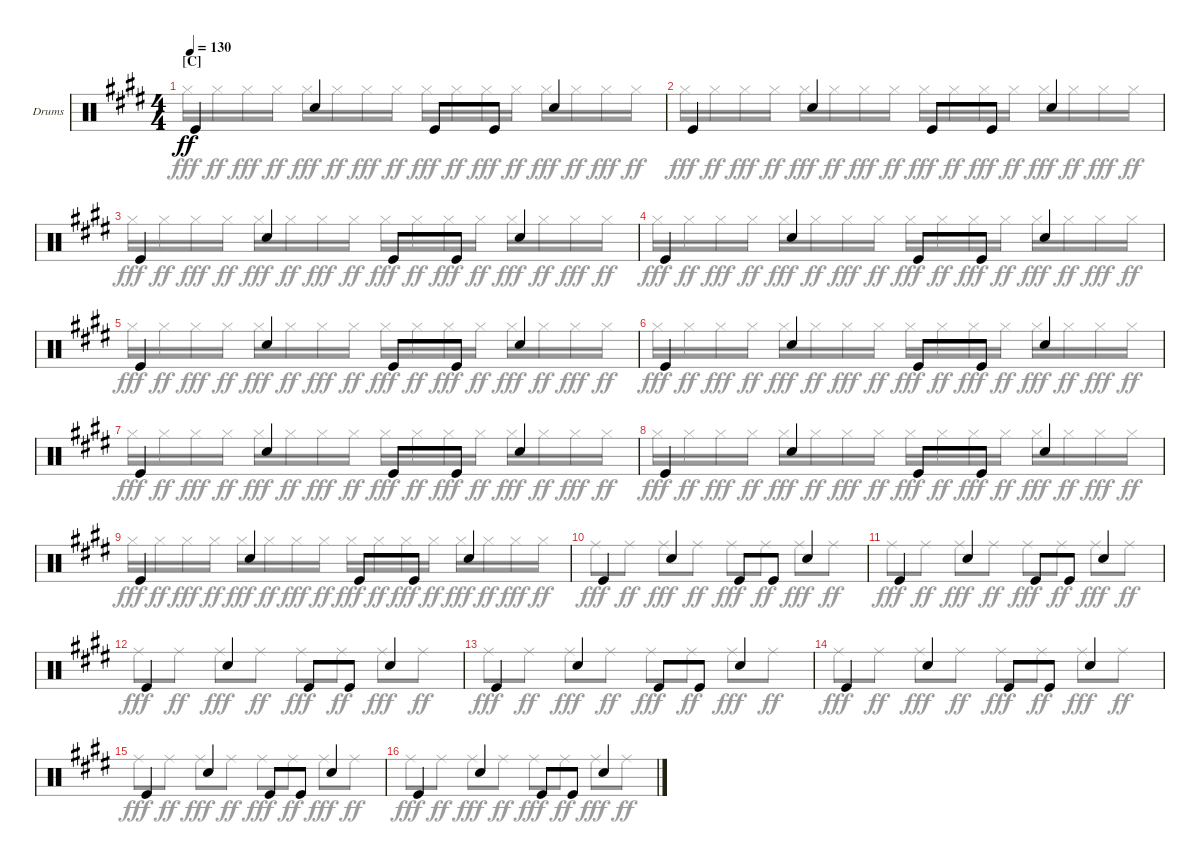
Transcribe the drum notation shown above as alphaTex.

\bracketExtendMode groupsimilarinstruments
\firstSystemTrackNameOrientation horizontal
\otherSystemsTrackNameOrientation horizontal
\track ("Fabrizo Moretti" "Drums") {instrument percussion}
\staff {score}
\articulation defaults
\voice
\ts (4 4)
\section ("C" "")
\tempo 130
\clef neutral
\ks e "Kick (hit)".4{dy ff} "Snare (hit) 2".4 "Kick (hit)".8 "Kick (hit)".8 "Snare (hit) 2".4
|
"Kick (hit)".4 "Snare (hit) 2".4 "Kick (hit)".8 "Kick (hit)".8 "Snare (hit) 2".4 |
"Kick (hit)".4 "Snare (hit) 2".4 "Kick (hit)".8 "Kick (hit)".8 "Snare (hit) 2".4 |
"Kick (hit)".4 "Snare (hit) 2".4 "Kick (hit)".8 "Kick (hit)".8 "Snare (hit) 2".4 |
"Kick (hit)".4 "Snare (hit) 2".4 "Kick (hit)".8 "Kick (hit)".8 "Snare (hit) 2".4 |
"Kick (hit)".4 "Snare (hit) 2".4 "Kick (hit)".8 "Kick (hit)".8 "Snare (hit) 2".4 |
"Kick (hit)".4 "Snare (hit) 2".4 "Kick (hit)".8 "Kick (hit)".8 "Snare (hit) 2".4 |
"Kick (hit)".4 "Snare (hit) 2".4 "Kick (hit)".8 "Kick (hit)".8 "Snare (hit) 2".4 |
"Kick (hit)".4 "Snare (hit) 2".4 "Kick (hit)".8 "Kick (hit)".8 "Snare (hit) 2".4 |
"Kick (hit)".4 "Snare (hit) 2".4 "Kick (hit)".8 "Kick (hit)".8 "Snare (hit) 2".4 |
"Kick (hit)".4 "Snare (hit) 2".4 "Kick (hit)".8 "Kick (hit)".8 "Snare (hit) 2".4 |
"Kick (hit)".4 "Snare (hit) 2".4 "Kick (hit)".8 "Kick (hit)".8 "Snare (hit) 2".4 |
"Kick (hit)".4 "Snare (hit) 2".4 "Kick (hit)".8 "Kick (hit)".8 "Snare (hit) 2".4 |
"Kick (hit)".4 "Snare (hit) 2".4 "Kick (hit)".8 "Kick (hit)".8 "Snare (hit) 2".4 |
"Kick (hit)".4 "Snare (hit) 2".4 "Kick (hit)".8 "Kick (hit)".8 "Snare (hit) 2".4 |
"Kick (hit)".4 "Snare (hit) 2".4 "Kick (hit)".8 "Kick (hit)".8 "Snare (hit) 2".4
\voice
\clef neutral
\ottava regular
\simile none
\ks e "Hi-Hat (closed)".16{dy fff} "Hi-Hat (closed)".16{dy ff} "Hi-Hat (closed)".16{dy fff} "Hi-Hat (closed)".16{dy ff} "Hi-Hat (closed)".16{dy fff} "Hi-Hat (closed)".16{dy ff} "Hi-Hat (closed)".16{dy fff} "Hi-Hat (closed)".16{dy ff} "Hi-Hat (closed)".16{dy fff} "Hi-Hat (closed)".16{dy ff} "Hi-Hat (closed)".16{dy fff} "Hi-Hat (closed)".16{dy ff} "Hi-Hat (closed)".16{dy fff} "Hi-Hat (closed)".16{dy ff} "Hi-Hat (closed)".16{dy fff} "Hi-Hat (closed)".16{dy ff}
|
"Hi-Hat (closed)".16{dy fff} "Hi-Hat (closed)".16{dy ff} "Hi-Hat (closed)".16{dy fff} "Hi-Hat (closed)".16{dy ff} "Hi-Hat (closed)".16{dy fff} "Hi-Hat (closed)".16{dy ff} "Hi-Hat (closed)".16{dy fff} "Hi-Hat (closed)".16{dy ff} "Hi-Hat (closed)".16{dy fff} "Hi-Hat (closed)".16{dy ff} "Hi-Hat (closed)".16{dy fff} "Hi-Hat (closed)".16{dy ff} "Hi-Hat (closed)".16{dy fff} "Hi-Hat (closed)".16{dy ff} "Hi-Hat (closed)".16{dy fff} "Hi-Hat (closed)".16{dy ff} |
"Hi-Hat (closed)".16{dy fff} "Hi-Hat (closed)".16{dy ff} "Hi-Hat (closed)".16{dy fff} "Hi-Hat (closed)".16{dy ff} "Hi-Hat (closed)".16{dy fff} "Hi-Hat (closed)".16{dy ff} "Hi-Hat (closed)".16{dy fff} "Hi-Hat (closed)".16{dy ff} "Hi-Hat (closed)".16{dy fff} "Hi-Hat (closed)".16{dy ff} "Hi-Hat (closed)".16{dy fff} "Hi-Hat (closed)".16{dy ff} "Hi-Hat (closed)".16{dy fff} "Hi-Hat (closed)".16{dy ff} "Hi-Hat (closed)".16{dy fff} "Hi-Hat (closed)".16{dy ff} |
"Hi-Hat (closed)".16{dy fff} "Hi-Hat (closed)".16{dy ff} "Hi-Hat (closed)".16{dy fff} "Hi-Hat (closed)".16{dy ff} "Hi-Hat (closed)".16{dy fff} "Hi-Hat (closed)".16{dy ff} "Hi-Hat (closed)".16{dy fff} "Hi-Hat (closed)".16{dy ff} "Hi-Hat (closed)".16{dy fff} "Hi-Hat (closed)".16{dy ff} "Hi-Hat (closed)".16{dy fff} "Hi-Hat (closed)".16{dy ff} "Hi-Hat (closed)".16{dy fff} "Hi-Hat (closed)".16{dy ff} "Hi-Hat (closed)".16{dy fff} "Hi-Hat (closed)".16{dy ff} |
"Hi-Hat (closed)".16{dy fff} "Hi-Hat (closed)".16{dy ff} "Hi-Hat (closed)".16{dy fff} "Hi-Hat (closed)".16{dy ff} "Hi-Hat (closed)".16{dy fff} "Hi-Hat (closed)".16{dy ff} "Hi-Hat (closed)".16{dy fff} "Hi-Hat (closed)".16{dy ff} "Hi-Hat (closed)".16{dy fff} "Hi-Hat (closed)".16{dy ff} "Hi-Hat (closed)".16{dy fff} "Hi-Hat (closed)".16{dy ff} "Hi-Hat (closed)".16{dy fff} "Hi-Hat (closed)".16{dy ff} "Hi-Hat (closed)".16{dy fff} "Hi-Hat (closed)".16{dy ff} |
"Hi-Hat (closed)".16{dy fff} "Hi-Hat (closed)".16{dy ff} "Hi-Hat (closed)".16{dy fff} "Hi-Hat (closed)".16{dy ff} "Hi-Hat (closed)".16{dy fff} "Hi-Hat (closed)".16{dy ff} "Hi-Hat (closed)".16{dy fff} "Hi-Hat (closed)".16{dy ff} "Hi-Hat (closed)".16{dy fff} "Hi-Hat (closed)".16{dy ff} "Hi-Hat (closed)".16{dy fff} "Hi-Hat (closed)".16{dy ff} "Hi-Hat (closed)".16{dy fff} "Hi-Hat (closed)".16{dy ff} "Hi-Hat (closed)".16{dy fff} "Hi-Hat (closed)".16{dy ff} |
"Hi-Hat (closed)".16{dy fff} "Hi-Hat (closed)".16{dy ff} "Hi-Hat (closed)".16{dy fff} "Hi-Hat (closed)".16{dy ff} "Hi-Hat (closed)".16{dy fff} "Hi-Hat (closed)".16{dy ff} "Hi-Hat (closed)".16{dy fff} "Hi-Hat (closed)".16{dy ff} "Hi-Hat (closed)".16{dy fff} "Hi-Hat (closed)".16{dy ff} "Hi-Hat (closed)".16{dy fff} "Hi-Hat (closed)".16{dy ff} "Hi-Hat (closed)".16{dy fff} "Hi-Hat (closed)".16{dy ff} "Hi-Hat (closed)".16{dy fff} "Hi-Hat (closed)".16{dy ff} |
"Hi-Hat (closed)".16{dy fff} "Hi-Hat (closed)".16{dy ff} "Hi-Hat (closed)".16{dy fff} "Hi-Hat (closed)".16{dy ff} "Hi-Hat (closed)".16{dy fff} "Hi-Hat (closed)".16{dy ff} "Hi-Hat (closed)".16{dy fff} "Hi-Hat (closed)".16{dy ff} "Hi-Hat (closed)".16{dy fff} "Hi-Hat (closed)".16{dy ff} "Hi-Hat (closed)".16{dy fff} "Hi-Hat (closed)".16{dy ff} "Hi-Hat (closed)".16{dy fff} "Hi-Hat (closed)".16{dy ff} "Hi-Hat (closed)".16{dy fff} "Hi-Hat (closed)".16{dy ff} |
"Hi-Hat (closed)".16{dy fff} "Hi-Hat (closed)".16{dy ff} "Hi-Hat (closed)".16{dy fff} "Hi-Hat (closed)".16{dy ff} "Hi-Hat (closed)".16{dy fff} "Hi-Hat (closed)".16{dy ff} "Hi-Hat (closed)".16{dy fff} "Hi-Hat (closed)".16{dy ff} "Hi-Hat (closed)".16{dy fff} "Hi-Hat (closed)".16{dy ff} "Hi-Hat (closed)".16{dy fff} "Hi-Hat (closed)".16{dy ff} "Hi-Hat (closed)".16{dy fff} "Hi-Hat (closed)".16{dy ff} "Hi-Hat (closed)".16{dy fff} "Hi-Hat (closed)".16{dy ff} |
"Ride (middle)".8{dy fff} "Ride (middle)".8{dy ff} "Ride (middle)".8{dy fff} "Ride (middle)".8{dy ff} "Ride (middle)".8{dy fff} "Ride (middle)".8{dy ff} "Ride (middle)".8{dy fff} "Ride (middle)".8{dy ff} |
"Ride (middle)".8{dy fff} "Ride (middle)".8{dy ff} "Ride (middle)".8{dy fff} "Ride (middle)".8{dy ff} "Ride (middle)".8{dy fff} "Ride (middle)".8{dy ff} "Ride (middle)".8{dy fff} "Ride (middle)".8{dy ff} |
"Ride (middle)".8{dy fff} "Ride (middle)".8{dy ff} "Ride (middle)".8{dy fff} "Ride (middle)".8{dy ff} "Ride (middle)".8{dy fff} "Ride (middle)".8{dy ff} "Ride (middle)".8{dy fff} "Ride (middle)".8{dy ff} |
"Ride (middle)".8{dy fff} "Ride (middle)".8{dy ff} "Ride (middle)".8{dy fff} "Ride (middle)".8{dy ff} "Ride (middle)".8{dy fff} "Ride (middle)".8{dy ff} "Ride (middle)".8{dy fff} "Ride (middle)".8{dy ff} |
"Ride (middle)".8{dy fff} "Ride (middle)".8{dy ff} "Ride (middle)".8{dy fff} "Ride (middle)".8{dy ff} "Ride (middle)".8{dy fff} "Ride (middle)".8{dy ff} "Ride (middle)".8{dy fff} "Ride (middle)".8{dy ff} |
"Ride (middle)".8{dy fff} "Ride (middle)".8{dy ff} "Ride (middle)".8{dy fff} "Ride (middle)".8{dy ff} "Ride (middle)".8{dy fff} "Ride (middle)".8{dy ff} "Ride (middle)".8{dy fff} "Ride (middle)".8{dy ff} |
"Ride (middle)".8{dy fff} "Ride (middle)".8{dy ff} "Ride (middle)".8{dy fff} "Ride (middle)".8{dy ff} "Ride (middle)".8{dy fff} "Ride (middle)".8{dy ff} "Ride (middle)".8{dy fff} "Ride (middle)".8{dy ff}
